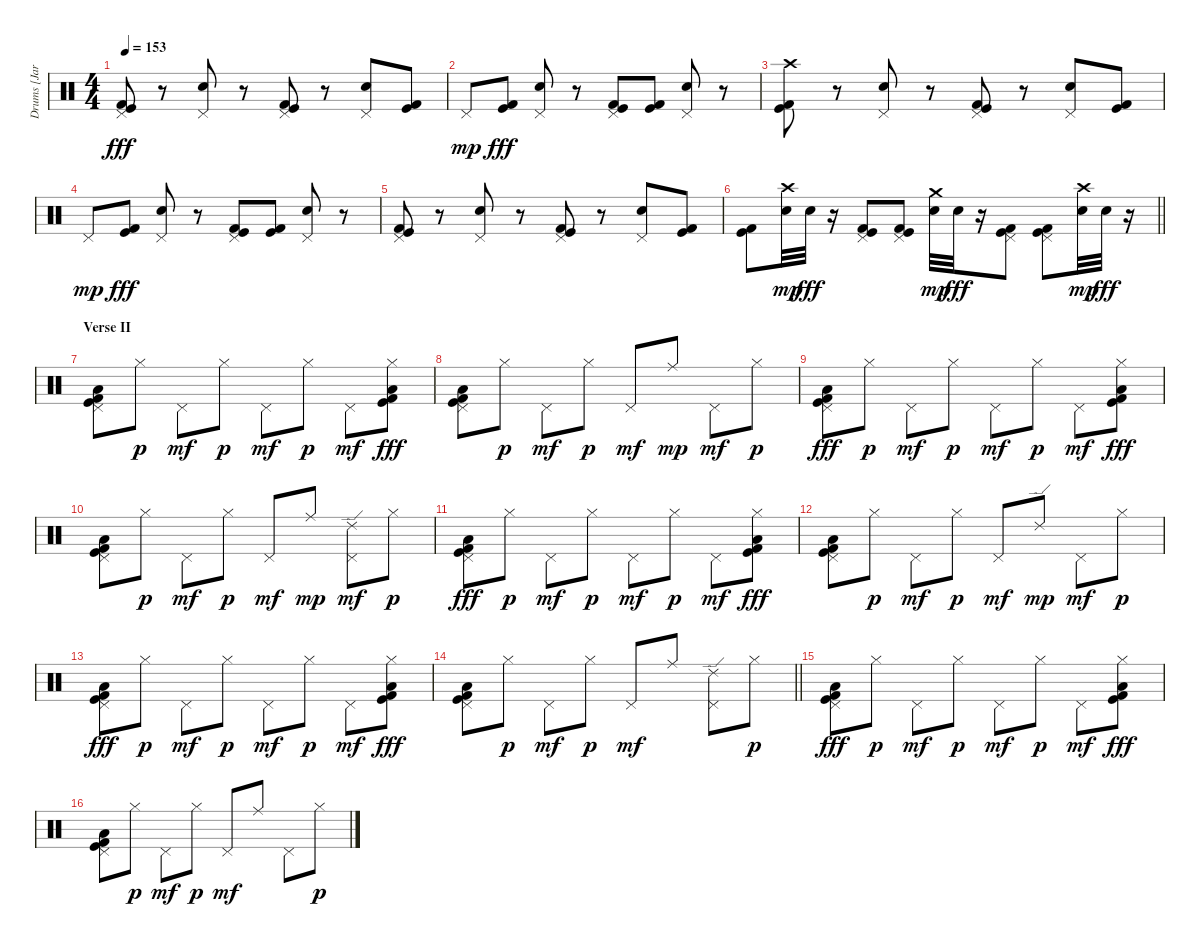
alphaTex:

\track ("Drums [Jari]" "Drums [Jar") {instrument percussion}
\staff {score}
\articulation defaults
\ts (4 4)
\tempo 153
\clef neutral
\ks c
("Kick (hit) 2" "Pedal Hi-Hat (hit)" "Kick (hit)").8{dy fff} r.8 ("Pedal Hi-Hat (hit)" "Electric Snare (hit)").8 r.8 ("Kick (hit) 2" "Pedal Hi-Hat (hit)" "Kick (hit)").8 r.8 ("Pedal Hi-Hat (hit)" "Electric Snare (hit)").8 ("Kick (hit) 2" "Kick (hit)").8 |
"Pedal Hi-Hat (hit)".8{dy mp} ("Kick (hit) 2" "Kick (hit)").8{dy fff} ("Pedal Hi-Hat (hit)" "Electric Snare (hit)").8 r.8 ("Kick (hit) 2" "Pedal Hi-Hat (hit)" "Kick (hit)").8 ("Kick (hit) 2" "Kick (hit)").8 ("Pedal Hi-Hat (hit)" "Electric Snare (hit)").8 r.8 |
("Kick (hit) 2" "Crash high (hit)" "Kick (hit)").8 r.8 ("Pedal Hi-Hat (hit)" "Electric Snare (hit)").8 r.8 ("Kick (hit) 2" "Pedal Hi-Hat (hit)" "Kick (hit)").8 r.8 ("Pedal Hi-Hat (hit)" "Electric Snare (hit)").8 ("Kick (hit) 2" "Kick (hit)").8 |
"Pedal Hi-Hat (hit)".8{dy mp} ("Kick (hit) 2" "Kick (hit)").8{dy fff} ("Pedal Hi-Hat (hit)" "Electric Snare (hit)").8 r.8 ("Kick (hit) 2" "Pedal Hi-Hat (hit)" "Kick (hit)").8 ("Kick (hit) 2" "Kick (hit)").8 ("Pedal Hi-Hat (hit)" "Electric Snare (hit)").8 r.8 |
("Kick (hit) 2" "Pedal Hi-Hat (hit)" "Kick (hit)").8 r.8 ("Pedal Hi-Hat (hit)" "Electric Snare (hit)").8 r.8 ("Kick (hit) 2" "Pedal Hi-Hat (hit)" "Kick (hit)").8 r.8 ("Pedal Hi-Hat (hit)" "Electric Snare (hit)").8 ("Kick (hit) 2" "Kick (hit)").8 |
\barLineRight lightlight
("Kick (hit) 2" "Kick (hit)").8 ("Crash high (hit)" "Electric Snare (hit)").32{dy mp} "Electric Snare (hit)".32{dy fff} r.16 ("Kick (hit) 2" "Pedal Hi-Hat (hit)" "Kick (hit)").8 ("Kick (hit) 2" "Pedal Hi-Hat (hit)" "Kick (hit)").8 ("Crash medium (hit)" "Electric Snare (hit)").32{dy mp} "Electric Snare (hit)".32{dy fff} r.16 ("Kick (hit) 2" "Pedal Hi-Hat (hit)" "Kick (hit)").8 ("Kick (hit) 2" "Pedal Hi-Hat (hit)" "Kick (hit)").8 ("Crash high (hit)" "Electric Snare (hit)").32{dy mp} "Electric Snare (hit)".32{dy fff} r.16 |
\section ("" "Verse II")
("Kick (hit) 2" "Low Floor Tom (hit)" "Pedal Hi-Hat (hit)" "Kick (hit)").8 "Hi-Hat (closed)".8{dy p} "Pedal Hi-Hat (hit)".8{dy mf} "Hi-Hat (closed)".8{dy p} "Pedal Hi-Hat (hit)".8{dy mf} "Hi-Hat (closed)".8{dy p} "Pedal Hi-Hat (hit)".8{dy mf} ("Kick (hit) 2" "Low Floor Tom (hit)" "Hi-Hat (closed)" "Kick (hit)").8{dy fff} |
("Kick (hit) 2" "Low Floor Tom (hit)" "Pedal Hi-Hat (hit)" "Kick (hit)").8 "Hi-Hat (closed)".8{dy p} "Pedal Hi-Hat (hit)".8{dy mf} "Hi-Hat (closed)".8{dy p} "Pedal Hi-Hat (hit)".8{dy mf} "Ride (middle)".8{dy mp} "Pedal Hi-Hat (hit)".8{dy mf} "Hi-Hat (closed)".8{dy p} |
("Kick (hit) 2" "Low Floor Tom (hit)" "Pedal Hi-Hat (hit)" "Kick (hit)").8{dy fff} "Hi-Hat (closed)".8{dy p} "Pedal Hi-Hat (hit)".8{dy mf} "Hi-Hat (closed)".8{dy p} "Pedal Hi-Hat (hit)".8{dy mf} "Hi-Hat (closed)".8{dy p} "Pedal Hi-Hat (hit)".8{dy mf} ("Kick (hit) 2" "Low Floor Tom (hit)" "Hi-Hat (closed)" "Kick (hit)").8{dy fff} |
("Kick (hit) 2" "Low Floor Tom (hit)" "Pedal Hi-Hat (hit)" "Kick (hit)").8 "Hi-Hat (closed)".8{dy p} "Pedal Hi-Hat (hit)".8{dy mf} "Hi-Hat (closed)".8{dy p} "Pedal Hi-Hat (hit)".8{dy mf} "Ride (middle)".8{dy mp} ("Ride (edge) 2" "Pedal Hi-Hat (hit)").8{dy mf} "Hi-Hat (closed)".8{dy p} |
("Kick (hit) 2" "Low Floor Tom (hit)" "Pedal Hi-Hat (hit)" "Kick (hit)").8{dy fff} "Hi-Hat (closed)".8{dy p} "Pedal Hi-Hat (hit)".8{dy mf} "Hi-Hat (closed)".8{dy p} "Pedal Hi-Hat (hit)".8{dy mf} "Hi-Hat (closed)".8{dy p} "Pedal Hi-Hat (hit)".8{dy mf} ("Kick (hit) 2" "Low Floor Tom (hit)" "Hi-Hat (closed)" "Kick (hit)").8{dy fff} |
("Kick (hit) 2" "Low Floor Tom (hit)" "Pedal Hi-Hat (hit)" "Kick (hit)").8 "Hi-Hat (closed)".8{dy p} "Pedal Hi-Hat (hit)".8{dy mf} "Hi-Hat (closed)".8{dy p} "Pedal Hi-Hat (hit)".8{dy mf} "Ride (edge) 2".8{dy mp} "Pedal Hi-Hat (hit)".8{dy mf} "Hi-Hat (closed)".8{dy p} |
("Kick (hit) 2" "Low Floor Tom (hit)" "Pedal Hi-Hat (hit)" "Kick (hit)").8{dy fff} "Hi-Hat (closed)".8{dy p} "Pedal Hi-Hat (hit)".8{dy mf} "Hi-Hat (closed)".8{dy p} "Pedal Hi-Hat (hit)".8{dy mf} "Hi-Hat (closed)".8{dy p} "Pedal Hi-Hat (hit)".8{dy mf} ("Kick (hit) 2" "Low Floor Tom (hit)" "Hi-Hat (closed)" "Kick (hit)").8{dy fff} |
\barLineRight lightlight
("Kick (hit) 2" "Low Floor Tom (hit)" "Pedal Hi-Hat (hit)" "Kick (hit)").8 "Hi-Hat (closed)".8{dy p} "Pedal Hi-Hat (hit)".8{dy mf} "Hi-Hat (closed)".8{dy p} "Pedal Hi-Hat (hit)".8{dy mf} "Ride (middle)".8 ("Ride (edge) 2" "Pedal Hi-Hat (hit)").8 "Hi-Hat (closed)".8{dy p} |
("Kick (hit) 2" "Low Floor Tom (hit)" "Pedal Hi-Hat (hit)" "Kick (hit)").8{dy fff} "Hi-Hat (closed)".8{dy p} "Pedal Hi-Hat (hit)".8{dy mf} "Hi-Hat (closed)".8{dy p} "Pedal Hi-Hat (hit)".8{dy mf} "Hi-Hat (closed)".8{dy p} "Pedal Hi-Hat (hit)".8{dy mf} ("Kick (hit) 2" "Low Floor Tom (hit)" "Hi-Hat (closed)" "Kick (hit)").8{dy fff} |
("Kick (hit) 2" "Low Floor Tom (hit)" "Pedal Hi-Hat (hit)" "Kick (hit)").8 "Hi-Hat (closed)".8{dy p} "Pedal Hi-Hat (hit)".8{dy mf} "Hi-Hat (closed)".8{dy p} "Pedal Hi-Hat (hit)".8{dy mf} "Ride (middle)".8 "Pedal Hi-Hat (hit)".8 "Hi-Hat (closed)".8{dy p}
